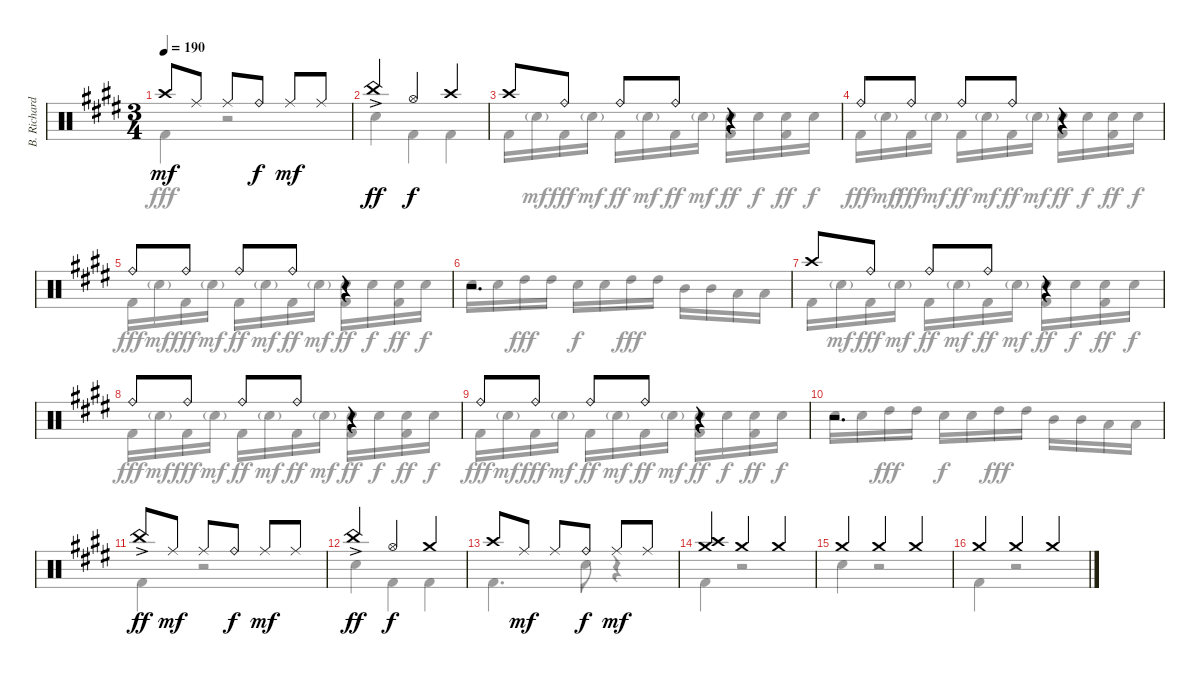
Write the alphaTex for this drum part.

\track ("B. Richardson Drums" "B. Richard") {instrument percussion}
\staff {score}
\articulation defaults
\voice
\ts (3 4)
\tempo 190
\clef neutral
\ks c#minor "Crash high (hit)".8{dy mf} "Ride (middle)".8 "Ride (middle)".8 "Ride (bell)".8{dy f} "Ride (middle)".8{dy mf} "Ride (middle)".8
|
"China (hit)"{ac}.4{dy ff} "Hi-Hat (open)".4{dy f} "Crash high (hit)".4 |
"Crash high (hit)".8 "Ride (bell)".8 "Ride (bell)".8 "Ride (bell)".8 r.4 |
"Ride (bell)".8 "Ride (bell)".8 "Ride (bell)".8 "Ride (bell)".8 r.4 |
"Ride (bell)".8 "Ride (bell)".8 "Ride (bell)".8 "Ride (bell)".8 r.4 |
r.2{d} |
"Crash high (hit)".8 "Ride (bell)".8 "Ride (bell)".8 "Ride (bell)".8 r.4 |
"Ride (bell)".8 "Ride (bell)".8 "Ride (bell)".8 "Ride (bell)".8 r.4 |
"Ride (bell)".8 "Ride (bell)".8 "Ride (bell)".8 "Ride (bell)".8 r.4 |
r.2{d} |
"China (hit)"{ac}.8{dy ff} "Ride (middle)".8{dy mf} "Ride (middle)".8 "Ride (bell)".8{dy f} "Ride (middle)".8{dy mf} "Ride (middle)".8 |
"China (hit)"{ac}.4{dy ff} "Hi-Hat (open)".4{dy f} "Crash medium (hit)".4 |
"Crash high (hit)".8 "Ride (middle)".8{dy mf} "Ride (middle)".8 "Ride (bell)".8{dy f} "Ride (middle)".8{dy mf} "Ride (middle)".8 |
("Crash medium (hit)" "Crash high (hit)").4 "Crash medium (hit)".4 "Crash medium (hit)".4 |
"Crash medium (hit)".4 "Crash medium (hit)".4 "Crash medium (hit)".4 |
"Crash medium (hit)".4 "Crash medium (hit)".4 "Crash medium (hit)".4
\voice
\clef neutral
\ottava regular
\simile none
\ks c#minor "Kick (hit) 2".4{dy fff}
r.2 |
"Electric Snare (hit)".4 "Kick (hit) 2".4 "Kick (hit) 2".4 |
"Kick (hit) 2".16 "Electric Snare (hit)"{g}.16{dy mf} "Kick (hit) 2".16{dy fff} "Electric Snare (hit)"{g}.16{dy mf} "Kick (hit) 2".16{dy ff} "Electric Snare (hit)"{g}.16{dy mf} "Kick (hit) 2".16{dy ff} "Electric Snare (hit)"{g}.16{dy mf} ("Electric Snare (hit)" "Kick (hit) 2").16{dy ff} "Electric Snare (hit)".16{dy f} ("Electric Snare (hit)" "Kick (hit) 2").16{dy ff} "Electric Snare (hit)".16{dy f} |
"Kick (hit) 2".16{dy fff} "Electric Snare (hit)"{g}.16{dy mf} "Kick (hit) 2".16{dy fff} "Electric Snare (hit)"{g}.16{dy mf} "Kick (hit) 2".16{dy ff} "Electric Snare (hit)"{g}.16{dy mf} "Kick (hit) 2".16{dy ff} "Electric Snare (hit)"{g}.16{dy mf} ("Electric Snare (hit)" "Kick (hit) 2").16{dy ff} "Electric Snare (hit)".16{dy f} ("Electric Snare (hit)" "Kick (hit) 2").16{dy ff} "Electric Snare (hit)".16{dy f} |
"Kick (hit) 2".16{dy fff} "Electric Snare (hit)"{g}.16{dy mf} "Kick (hit) 2".16{dy fff} "Electric Snare (hit)"{g}.16{dy mf} "Kick (hit) 2".16{dy ff} "Electric Snare (hit)"{g}.16{dy mf} "Kick (hit) 2".16{dy ff} "Electric Snare (hit)"{g}.16{dy mf} ("Electric Snare (hit)" "Kick (hit) 2").16{dy ff} "Electric Snare (hit)".16{dy f} ("Electric Snare (hit)" "Kick (hit) 2").16{dy ff} "Electric Snare (hit)".16{dy f} |
"Electric Snare (hit)".16 "Electric Snare (hit)".16 "High Tom (hit)".16{dy fff} "High Tom (hit)".16 "Electric Snare (hit)".16{dy f} "Electric Snare (hit)".16 "High Tom (hit)".16{dy fff} "High Tom (hit)".16 "Mid Tom (hit)".16 "Mid Tom (hit)".16 "Low Tom (hit)".16 "Low Tom (hit)".16 |
"Kick (hit) 2".16 "Electric Snare (hit)"{g}.16{dy mf} "Kick (hit) 2".16{dy fff} "Electric Snare (hit)"{g}.16{dy mf} "Kick (hit) 2".16{dy ff} "Electric Snare (hit)"{g}.16{dy mf} "Kick (hit) 2".16{dy ff} "Electric Snare (hit)"{g}.16{dy mf} ("Electric Snare (hit)" "Kick (hit) 2").16{dy ff} "Electric Snare (hit)".16{dy f} ("Electric Snare (hit)" "Kick (hit) 2").16{dy ff} "Electric Snare (hit)".16{dy f} |
"Kick (hit) 2".16{dy fff} "Electric Snare (hit)"{g}.16{dy mf} "Kick (hit) 2".16{dy fff} "Electric Snare (hit)"{g}.16{dy mf} "Kick (hit) 2".16{dy ff} "Electric Snare (hit)"{g}.16{dy mf} "Kick (hit) 2".16{dy ff} "Electric Snare (hit)"{g}.16{dy mf} ("Electric Snare (hit)" "Kick (hit) 2").16{dy ff} "Electric Snare (hit)".16{dy f} ("Electric Snare (hit)" "Kick (hit) 2").16{dy ff} "Electric Snare (hit)".16{dy f} |
"Kick (hit) 2".16{dy fff} "Electric Snare (hit)"{g}.16{dy mf} "Kick (hit) 2".16{dy fff} "Electric Snare (hit)"{g}.16{dy mf} "Kick (hit) 2".16{dy ff} "Electric Snare (hit)"{g}.16{dy mf} "Kick (hit) 2".16{dy ff} "Electric Snare (hit)"{g}.16{dy mf} ("Electric Snare (hit)" "Kick (hit) 2").16{dy ff} "Electric Snare (hit)".16{dy f} ("Electric Snare (hit)" "Kick (hit) 2").16{dy ff} "Electric Snare (hit)".16{dy f} |
"Electric Snare (hit)".16 "Electric Snare (hit)".16 "High Tom (hit)".16{dy fff} "High Tom (hit)".16 "Electric Snare (hit)".16{dy f} "Electric Snare (hit)".16 "High Tom (hit)".16{dy fff} "High Tom (hit)".16 "Mid Tom (hit)".16 "Mid Tom (hit)".16 "Low Tom (hit)".16 "Low Tom (hit)".16 |
"Kick (hit) 2".4 r.2 |
"Electric Snare (hit)".4 "Kick (hit) 2".4 "Kick (hit) 2".4 |
"Kick (hit) 2".4{d} "Electric Snare (hit)".8 r.4 |
"Kick (hit) 2".4 r.2 |
"Electric Snare (hit)".4 r.2 |
"Kick (hit) 2".4 r.2
